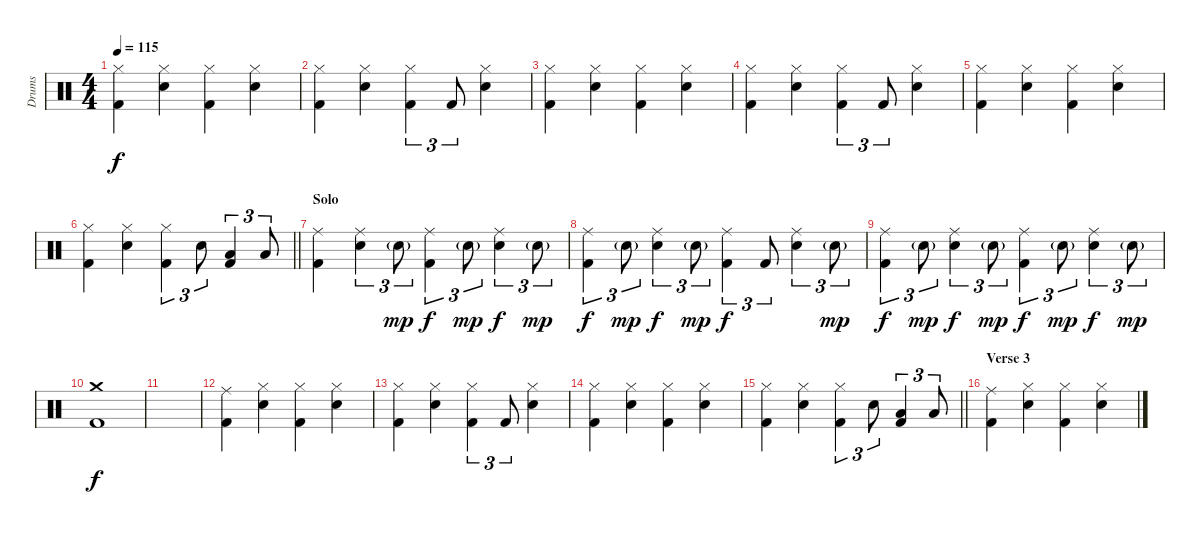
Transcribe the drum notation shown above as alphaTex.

\track ("Drums" "Drums") {instrument percussion}
\staff {score}
\articulation defaults
\ts (4 4)
\tempo 115
\clef neutral
\ks c
("Hi-Hat (closed)" "Kick (hit) 2").4{dy f} ("Hi-Hat (closed)" "Electric Snare (hit)").4 ("Hi-Hat (closed)" "Kick (hit) 2").4 ("Hi-Hat (closed)" "Electric Snare (hit)").4 |
("Hi-Hat (closed)" "Kick (hit) 2").4 ("Hi-Hat (closed)" "Electric Snare (hit)").4 ("Hi-Hat (closed)" "Kick (hit) 2").4{tu (3 2)} "Kick (hit) 2".8{tu (3 2)} ("Hi-Hat (closed)" "Electric Snare (hit)").4 |
("Hi-Hat (closed)" "Kick (hit) 2").4 ("Hi-Hat (closed)" "Electric Snare (hit)").4 ("Hi-Hat (closed)" "Kick (hit) 2").4 ("Hi-Hat (closed)" "Electric Snare (hit)").4 |
("Hi-Hat (closed)" "Kick (hit) 2").4 ("Hi-Hat (closed)" "Electric Snare (hit)").4 ("Hi-Hat (closed)" "Kick (hit) 2").4{tu (3 2)} "Kick (hit) 2".8{tu (3 2)} ("Hi-Hat (closed)" "Electric Snare (hit)").4 |
("Hi-Hat (closed)" "Kick (hit) 2").4 ("Hi-Hat (closed)" "Electric Snare (hit)").4 ("Hi-Hat (closed)" "Kick (hit) 2").4 ("Hi-Hat (closed)" "Electric Snare (hit)").4 |
\barLineRight lightlight
("Hi-Hat (closed)" "Kick (hit) 2").4 ("Hi-Hat (closed)" "Electric Snare (hit)").4 ("Hi-Hat (closed)" "Kick (hit) 2").4{tu (3 2)} "Electric Snare (hit)".8{tu (3 2)} ("Low Tom (hit)" "Kick (hit) 2").4{tu (3 2)} "Low Floor Tom (hit)".8{tu (3 2)} |
\section ("" "Solo")
("Ride (middle)" "Kick (hit) 2").4 ("Ride (middle)" "Electric Snare (hit)").4{tu (3 2)} "Electric Snare (hit)"{g}.8{tu (3 2) dy mp} ("Ride (middle)" "Kick (hit) 2").4{tu (3 2) dy f} "Electric Snare (hit)"{g}.8{tu (3 2) dy mp} ("Ride (middle)" "Electric Snare (hit)").4{tu (3 2) dy f} "Electric Snare (hit)"{g}.8{tu (3 2) dy mp} |
("Ride (middle)" "Kick (hit) 2").4{tu (3 2) dy f} "Electric Snare (hit)"{g}.8{tu (3 2) dy mp} ("Ride (middle)" "Electric Snare (hit)").4{tu (3 2) dy f} "Electric Snare (hit)"{g}.8{tu (3 2) dy mp} ("Ride (middle)" "Kick (hit) 2").4{tu (3 2) dy f} "Kick (hit) 2".8{tu (3 2)} ("Ride (middle)" "Electric Snare (hit)").4{tu (3 2)} "Electric Snare (hit)"{g}.8{tu (3 2) dy mp} |
("Ride (middle)" "Kick (hit) 2").4{tu (3 2) dy f} "Electric Snare (hit)"{g}.8{tu (3 2) dy mp} ("Ride (middle)" "Electric Snare (hit)").4{tu (3 2) dy f} "Electric Snare (hit)"{g}.8{tu (3 2) dy mp} ("Ride (middle)" "Kick (hit) 2").4{tu (3 2) dy f} "Electric Snare (hit)"{g}.8{tu (3 2) dy mp} ("Ride (middle)" "Electric Snare (hit)").4{tu (3 2) dy f} "Electric Snare (hit)"{g}.8{tu (3 2) dy mp} |
("Crash medium (hit)" "Kick (hit) 2").1{dy f} |
|
("Ride (middle)" "Kick (hit) 2").4 ("Hi-Hat (closed)" "Electric Snare (hit)").4 ("Hi-Hat (closed)" "Kick (hit) 2").4 ("Hi-Hat (closed)" "Electric Snare (hit)").4 |
("Hi-Hat (closed)" "Kick (hit) 2").4 ("Hi-Hat (closed)" "Electric Snare (hit)").4 ("Hi-Hat (closed)" "Kick (hit) 2").4{tu (3 2)} "Kick (hit) 2".8{tu (3 2)} ("Hi-Hat (closed)" "Electric Snare (hit)").4 |
("Hi-Hat (closed)" "Kick (hit) 2").4 ("Hi-Hat (closed)" "Electric Snare (hit)").4 ("Hi-Hat (closed)" "Kick (hit) 2").4 ("Hi-Hat (closed)" "Electric Snare (hit)").4 |
\barLineRight lightlight
("Hi-Hat (closed)" "Kick (hit) 2").4 ("Hi-Hat (closed)" "Electric Snare (hit)").4 ("Hi-Hat (closed)" "Kick (hit) 2").4{tu (3 2)} "Electric Snare (hit)".8{tu (3 2)} ("Low Tom (hit)" "Kick (hit) 2").4{tu (3 2)} "Low Floor Tom (hit)".8{tu (3 2)} |
\section ("" "Verse 3")
("Ride (middle)" "Kick (hit) 2").4 ("Hi-Hat (closed)" "Electric Snare (hit)").4 ("Hi-Hat (closed)" "Kick (hit) 2").4 ("Hi-Hat (closed)" "Electric Snare (hit)").4
